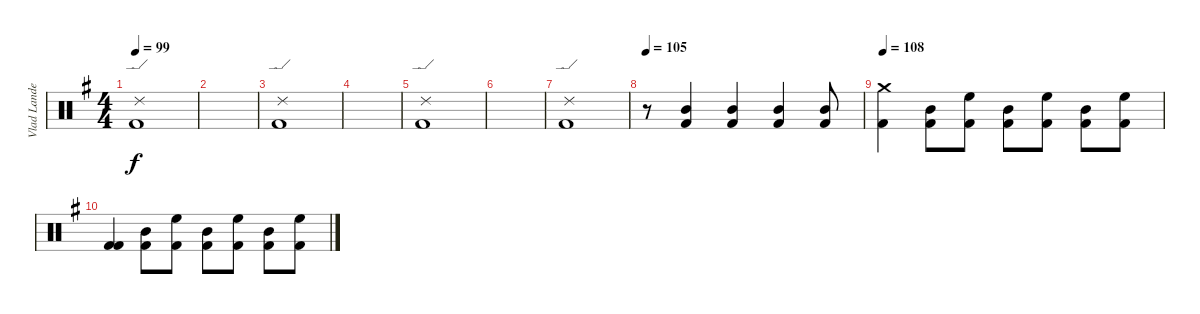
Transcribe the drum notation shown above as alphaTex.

\track ("Vlad Landeros" "Vlad Lande") {solo instrument percussion}
\staff {score}
\articulation defaults
\ts (4 4)
\tempo 99
\clef neutral
\ks eminor
("Ride (edge) 2" "Kick (hit) 2").1{dy f} |
|
("Ride (edge) 2" "Kick (hit) 2").1 |
|
("Ride (edge) 2" "Kick (hit) 2").1 |
|
("Ride (edge) 2" "Kick (hit) 2").1 |
\tempo 105
r.8 ("Mid Tom (hit)" "Kick (hit) 2").4 ("Mid Tom (hit)" "Kick (hit) 2").4 ("Mid Tom (hit)" "Kick (hit) 2").4 ("Mid Tom (hit)" "Kick (hit) 2").8 |
\tempo 108
("Crash medium (hit)" "Kick (hit) 2").4 ("Mid Tom (hit)" "Kick (hit) 2").8 ("High Floor Tom (hit)" "Kick (hit) 2").8 ("Mid Tom (hit)" "Kick (hit) 2").8 ("High Floor Tom (hit)" "Kick (hit) 2").8 ("Mid Tom (hit)" "Kick (hit) 2").8 ("High Floor Tom (hit)" "Kick (hit) 2").8 |
("Kick (hit) 2" "Kick (hit) 2").4 ("Mid Tom (hit)" "Kick (hit) 2").8 ("High Floor Tom (hit)" "Kick (hit) 2").8 ("Mid Tom (hit)" "Kick (hit) 2").8 ("High Floor Tom (hit)" "Kick (hit) 2").8 ("Mid Tom (hit)" "Kick (hit) 2").8 ("High Floor Tom (hit)" "Kick (hit) 2").8
